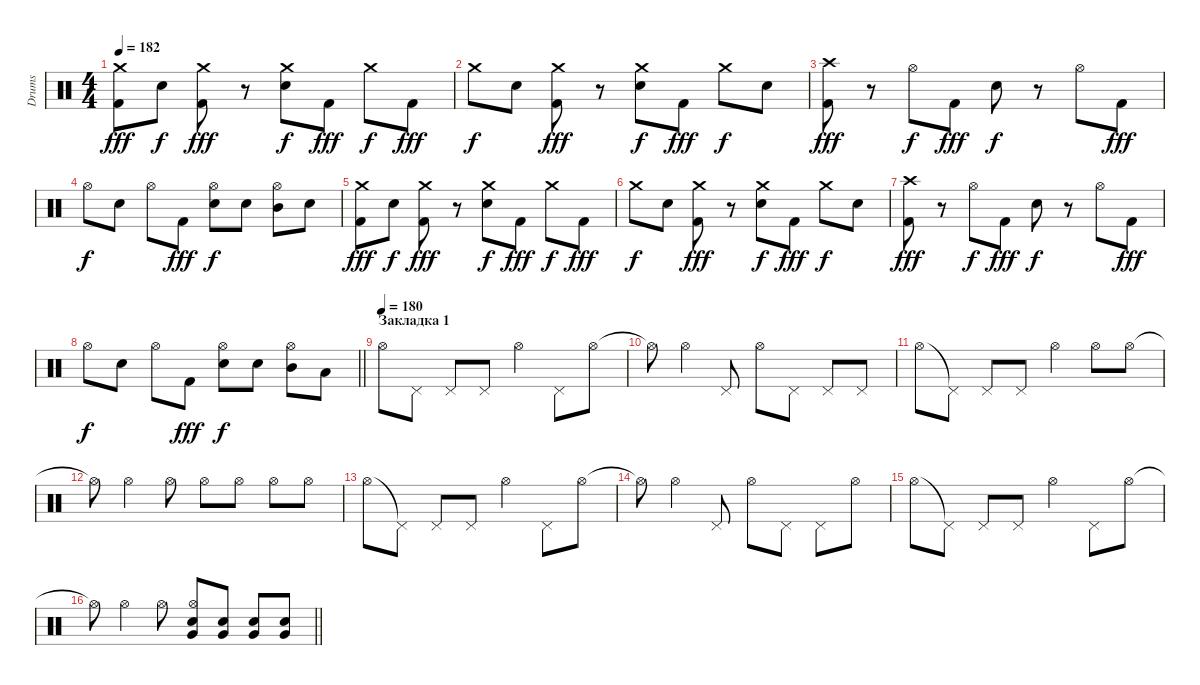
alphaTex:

\track ("Drums" "Drums") {instrument percussion}
\staff {score}
\articulation defaults
\ts (4 4)
\tempo 182
\clef neutral
\ks c
("Crash medium (hit)" "Kick (hit) 2").8{dy fff} "Electric Snare (hit)".8{dy f} ("Crash medium (hit)" "Kick (hit) 2").8{dy fff} r.8 ("Crash medium (hit)" "Electric Snare (hit)").8{dy f} "Kick (hit) 2".8{dy fff} "Crash medium (hit)".8{dy f} "Kick (hit) 2".8{dy fff} |
"Crash medium (hit)".8{dy f} "Electric Snare (hit)".8 ("Crash medium (hit)" "Kick (hit) 2").8{dy fff} r.8 ("Crash medium (hit)" "Electric Snare (hit)").8{dy f} "Kick (hit) 2".8{dy fff} "Crash medium (hit)".8{dy f} "Electric Snare (hit)".8 |
("Crash high (hit)" "Kick (hit) 2").8{dy fff} r.8 "Hi-Hat (open)".8{dy f} "Kick (hit) 2".8{dy fff} "Electric Snare (hit)".8{dy f} r.8 "Hi-Hat (open)".8 "Kick (hit) 2".8{dy fff} |
"Hi-Hat (open)".8{dy f} "Electric Snare (hit)".8 "Hi-Hat (open)".8 "Kick (hit) 2".8{dy fff} ("Hi-Hat (open)" "Electric Snare (hit)").8{dy f} "Electric Snare (hit)".8 ("Hi-Hat (open)" "Mid Tom (hit)").8 "Electric Snare (hit)".8 |
("Crash medium (hit)" "Kick (hit) 2").8{dy fff} "Electric Snare (hit)".8{dy f} ("Crash medium (hit)" "Kick (hit) 2").8{dy fff} r.8 ("Crash medium (hit)" "Electric Snare (hit)").8{dy f} "Kick (hit) 2".8{dy fff} "Crash medium (hit)".8{dy f} "Kick (hit) 2".8{dy fff} |
"Crash medium (hit)".8{dy f} "Electric Snare (hit)".8 ("Crash medium (hit)" "Kick (hit) 2").8{dy fff} r.8 ("Crash medium (hit)" "Electric Snare (hit)").8{dy f} "Kick (hit) 2".8{dy fff} "Crash medium (hit)".8{dy f} "Electric Snare (hit)".8 |
("Crash high (hit)" "Kick (hit) 2").8{dy fff} r.8 "Hi-Hat (open)".8{dy f} "Kick (hit) 2".8{dy fff} "Electric Snare (hit)".8{dy f} r.8 "Hi-Hat (open)".8 "Kick (hit) 2".8{dy fff} |
\barLineRight lightlight "Hi-Hat (open)".8{dy f} "Electric Snare (hit)".8 "Hi-Hat (open)".8 "Kick (hit) 2".8{dy fff}
("Hi-Hat (open)" "Electric Snare (hit)").8{dy f} "Electric Snare (hit)".8 ("Hi-Hat (open)" "Mid Tom (hit)").8 "Low Tom (hit)".8 |
\section ("" "Закладка 1")
\tempo (180)
"Hi-Hat (open)".8 "Pedal Hi-Hat (hit)".8 "Pedal Hi-Hat (hit)".8 "Pedal Hi-Hat (hit)".8 "Hi-Hat (open)".4 "Pedal Hi-Hat (hit)".8 "Hi-Hat (open)".8 |
"Hi-Hat (open)"{t}.8 "Hi-Hat (open)".4 "Pedal Hi-Hat (hit)".8 "Hi-Hat (open)".8 "Pedal Hi-Hat (hit)".8 "Pedal Hi-Hat (hit)".8 "Pedal Hi-Hat (hit)".8 |
"Hi-Hat (open)".8 "Pedal Hi-Hat (hit)"{t}.8 "Pedal Hi-Hat (hit)".8 "Pedal Hi-Hat (hit)".8 "Hi-Hat (open)".4 "Hi-Hat (open)".8 "Hi-Hat (open)".8 |
"Hi-Hat (open)"{t}.8 "Hi-Hat (open)".4 "Hi-Hat (open)".8 "Hi-Hat (open)".8 "Hi-Hat (open)".8 "Hi-Hat (open)".8 "Hi-Hat (open)".8 |
"Hi-Hat (open)".8 "Pedal Hi-Hat (hit)"{t}.8 "Pedal Hi-Hat (hit)".8 "Pedal Hi-Hat (hit)".8 "Hi-Hat (open)".4 "Pedal Hi-Hat (hit)".8 "Hi-Hat (open)".8 |
"Hi-Hat (open)"{t}.8 "Hi-Hat (open)".4 "Pedal Hi-Hat (hit)".8 "Hi-Hat (open)".8 "Pedal Hi-Hat (hit)".8 "Pedal Hi-Hat (hit)".8 "Hi-Hat (open)".8 |
"Hi-Hat (open)".8 "Pedal Hi-Hat (hit)"{t}.8 "Pedal Hi-Hat (hit)".8 "Pedal Hi-Hat (hit)".8 "Hi-Hat (open)".4 "Pedal Hi-Hat (hit)".8 "Hi-Hat (open)".8 |
\barLineRight lightlight "Hi-Hat (open)"{t}.8 "Hi-Hat (open)".4 "Hi-Hat (open)".8
("Hi-Hat (open)" "Very Low Tom (hit)" "Electric Snare (hit)").8 ("Very Low Tom (hit)" "Electric Snare (hit)").8 ("Very Low Tom (hit)" "Electric Snare (hit)").8 ("Very Low Tom (hit)" "Electric Snare (hit)").8
